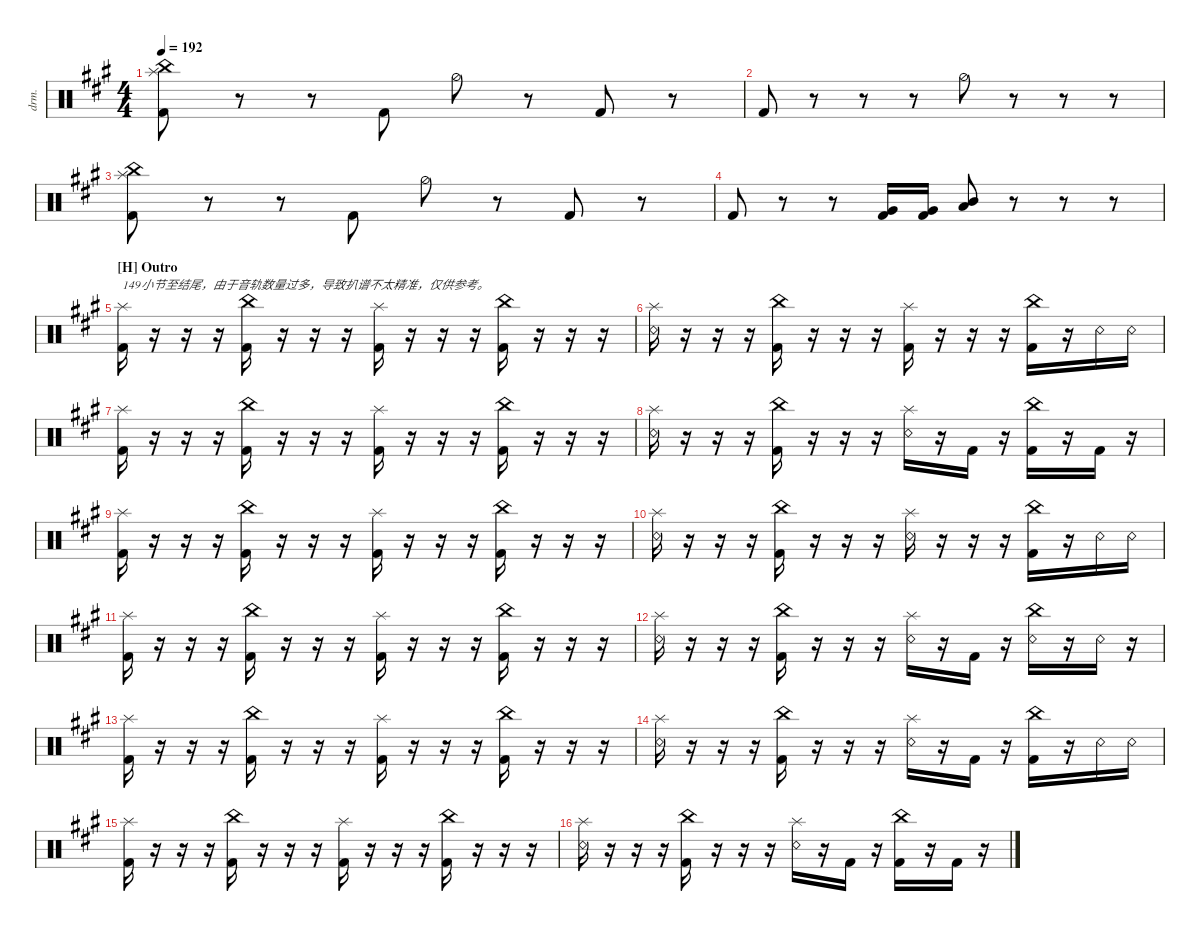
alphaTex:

\defaultSystemsLayout 4
\hideDynamics
\bracketExtendMode nobrackets
\otherSystemsTrackNameOrientation horizontal
\track ("Drumkit" "drm.") {instrument percussion}
\staff {score}
\articulation defaults
\ts (4 4)
\tempo 192
\clef neutral
\ks a
("Kick (hit) 2"{acc forcenatural} "China (hit)"{acc forcenatural} "Splash (hit)"{acc forcenatural}).8{dy ff beam Down} r.8{beam Down} r.8{beam Down} "Kick (hit) 2"{acc forcenatural}.8{beam Up} "Hi-Hat (half)"{acc forcenatural}.8{beam Down} r.8{beam Down} "Kick (hit) 2"{acc forcenatural}.8{beam Up} r.8{beam Up} |
"Kick (hit) 2"{acc forcenatural}.8{beam Up} r.8{beam Up} r.8{beam Up} r.8{beam Up} "Hi-Hat (half)"{acc forcenatural}.8{beam Down} r.8{beam Down} r.8{beam Down} r.8{beam Down} |
("Kick (hit) 2"{acc forcenatural} "China (hit)"{acc forcenatural} "Splash (hit)"{acc forcenatural}).8{beam Down} r.8{beam Down} r.8{beam Down} "Kick (hit) 2"{acc forcenatural}.8{beam Up} "Hi-Hat (half)"{acc forcenatural}.8{beam Down} r.8{beam Down} "Kick (hit) 2"{acc forcenatural}.8{beam Up} r.8{beam Up} |
"Kick (hit) 2"{acc forcenatural}.8{beam Up} r.8{beam Up} r.8{beam Up} ("Kick (hit) 2"{acc forcenatural} "Very Low Tom (hit)"{acc forcenatural}).16{beam Up} ("Kick (hit) 2"{acc forcenatural} "Very Low Tom (hit)"{acc forcenatural}).16{beam Up} ("Mid Tom (hit)"{acc forcenatural} "Low Tom (hit)"{acc forcenatural}).8{beam Up} r.8{beam Up} r.8{beam Up} r.8{beam Up} |
\section ("H" "Outro")
("Kick (hit) 2"{acc forcenatural} "Splash (hit)"{acc forcenatural}).16{txt "149小节至结尾，由于音轨数量过多，导致扒谱不太精准，仅供参考。" beam Down} r.16{beam Down} r.16{beam Down} r.16{beam Down} ("Kick (hit) 2"{acc forcenatural} "China (hit)"{acc forcenatural}).16{beam Down} r.16{beam Down} r.16{beam Down} r.16{beam Down} ("Kick (hit) 2"{acc forcenatural} "Splash (hit)"{acc forcenatural}).16{beam Down} r.16{beam Down} r.16{beam Down} r.16{beam Down} ("Kick (hit) 2"{acc forcenatural} "China (hit)"{acc forcenatural}).16{beam Down} r.16{beam Down} r.16{beam Down} r.16{beam Down} |
("Snare (rim shot)"{acc forcenatural} "Splash (hit)"{acc forcenatural}).16{beam Down} r.16{beam Down} r.16{beam Down} r.16{beam Down} ("Kick (hit) 2"{acc forcenatural} "China (hit)"{acc forcenatural}).16{beam Down} r.16{beam Down} r.16{beam Down} r.16{beam Down} ("Kick (hit) 2"{acc forcenatural} "Splash (hit)"{acc forcenatural}).16{beam Down} r.16{beam Down} r.16{beam Down} r.16{beam Down} ("Kick (hit) 2"{acc forcenatural} "China (hit)"{acc forcenatural}).16{beam Down} r.16{beam Down} "Snare (rim shot)"{acc forcenatural}.16{beam Down} "Snare (rim shot)"{acc forcenatural}.16{beam Down} |
("Kick (hit) 2"{acc forcenatural} "Splash (hit)"{acc forcenatural}).16{beam Down} r.16{beam Down} r.16{beam Down} r.16{beam Down} ("Kick (hit) 2"{acc forcenatural} "China (hit)"{acc forcenatural}).16{beam Down} r.16{beam Down} r.16{beam Down} r.16{beam Down} ("Kick (hit) 2"{acc forcenatural} "Splash (hit)"{acc forcenatural}).16{beam Down} r.16{beam Down} r.16{beam Down} r.16{beam Down} ("Kick (hit) 2"{acc forcenatural} "China (hit)"{acc forcenatural}).16{beam Down} r.16{beam Down} r.16{beam Down} r.16{beam Down} |
("Snare (rim shot)"{acc forcenatural} "Splash (hit)"{acc forcenatural}).16{beam Down} r.16{beam Down} r.16{beam Down} r.16{beam Down} ("Kick (hit) 2"{acc forcenatural} "China (hit)"{acc forcenatural}).16{beam Down} r.16{beam Down} r.16{beam Down} r.16{beam Down} ("Splash (hit)"{acc forcenatural} "Snare (rim shot)"{acc forcenatural}).16{beam Down} r.16{beam Down} "Kick (hit) 2"{acc forcenatural}.16{beam Down} r.16{beam Down} ("Kick (hit) 2"{acc forcenatural} "China (hit)"{acc forcenatural}).16{beam Down} r.16{beam Down} "Kick (hit) 2"{acc forcenatural}.16{beam Down} r.16{beam Down} |
("Kick (hit) 2"{acc forcenatural} "Splash (hit)"{acc forcenatural}).16{beam Down} r.16{beam Down} r.16{beam Down} r.16{beam Down} ("Kick (hit) 2"{acc forcenatural} "China (hit)"{acc forcenatural}).16{beam Down} r.16{beam Down} r.16{beam Down} r.16{beam Down} ("Kick (hit) 2"{acc forcenatural} "Splash (hit)"{acc forcenatural}).16{beam Down} r.16{beam Down} r.16{beam Down} r.16{beam Down} ("Kick (hit) 2"{acc forcenatural} "China (hit)"{acc forcenatural}).16{beam Down} r.16{beam Down} r.16{beam Down} r.16{beam Down} |
("Snare (rim shot)"{acc forcenatural} "Splash (hit)"{acc forcenatural}).16{beam Down} r.16{beam Down} r.16{beam Down} r.16{beam Down} ("Kick (hit) 2"{acc forcenatural} "China (hit)"{acc forcenatural}).16{beam Down} r.16{beam Down} r.16{beam Down} r.16{beam Down} ("Splash (hit)"{acc forcenatural} "Snare (rim shot)"{acc forcenatural}).16{beam Down} r.16{beam Down} r.16{beam Down} r.16{beam Down} ("Kick (hit) 2"{acc forcenatural} "China (hit)"{acc forcenatural}).16{beam Down} r.16{beam Down} "Snare (rim shot)"{acc forcenatural}.16{beam Down} "Snare (rim shot)"{acc forcenatural}.16{beam Down} |
("Kick (hit) 2"{acc forcenatural} "Splash (hit)"{acc forcenatural}).16{beam Down} r.16{beam Down} r.16{beam Down} r.16{beam Down} ("Kick (hit) 2"{acc forcenatural} "China (hit)"{acc forcenatural}).16{beam Down} r.16{beam Down} r.16{beam Down} r.16{beam Down} ("Kick (hit) 2"{acc forcenatural} "Splash (hit)"{acc forcenatural}).16{beam Down} r.16{beam Down} r.16{beam Down} r.16{beam Down} ("Kick (hit) 2"{acc forcenatural} "China (hit)"{acc forcenatural}).16{beam Down} r.16{beam Down} r.16{beam Down} r.16{beam Down} |
("Snare (rim shot)"{acc forcenatural} "Splash (hit)"{acc forcenatural}).16{beam Down} r.16{beam Down} r.16{beam Down} r.16{beam Down} ("Kick (hit) 2"{acc forcenatural} "China (hit)"{acc forcenatural}).16{beam Down} r.16{beam Down} r.16{beam Down} r.16{beam Down} ("Splash (hit)"{acc forcenatural} "Snare (rim shot)"{acc forcenatural}).16{beam Down} r.16{beam Down} "Kick (hit) 2"{acc forcenatural}.16{beam Down} r.16{beam Down} ("China (hit)"{acc forcenatural} "Snare (rim shot)"{acc forcenatural}).16{beam Down} r.16{beam Down} "Snare (rim shot)"{acc forcenatural}.16{beam Down} r.16{beam Down} |
("Kick (hit) 2"{acc forcenatural} "Splash (hit)"{acc forcenatural}).16{beam Down} r.16{beam Down} r.16{beam Down} r.16{beam Down} ("Kick (hit) 2"{acc forcenatural} "China (hit)"{acc forcenatural}).16{beam Down} r.16{beam Down} r.16{beam Down} r.16{beam Down} ("Kick (hit) 2"{acc forcenatural} "Splash (hit)"{acc forcenatural}).16{beam Down} r.16{beam Down} r.16{beam Down} r.16{beam Down} ("Kick (hit) 2"{acc forcenatural} "China (hit)"{acc forcenatural}).16{beam Down} r.16{beam Down} r.16{beam Down} r.16{beam Down} |
("Snare (rim shot)"{acc forcenatural} "Splash (hit)"{acc forcenatural}).16{beam Down} r.16{beam Down} r.16{beam Down} r.16{beam Down} ("Kick (hit) 2"{acc forcenatural} "China (hit)"{acc forcenatural}).16{beam Down} r.16{beam Down} r.16{beam Down} r.16{beam Down} ("Splash (hit)"{acc forcenatural} "Snare (rim shot)"{acc forcenatural}).16{beam Down} r.16{beam Down} "Kick (hit) 2"{acc forcenatural}.16{beam Down} r.16{beam Down} ("Kick (hit) 2"{acc forcenatural} "China (hit)"{acc forcenatural}).16{beam Down} r.16{beam Down} "Snare (rim shot)"{acc forcenatural}.16{beam Down} "Snare (rim shot)"{acc forcenatural}.16{beam Down} |
("Kick (hit) 2"{acc forcenatural} "Splash (hit)"{acc forcenatural}).16{beam Down} r.16{beam Down} r.16{beam Down} r.16{beam Down} ("Kick (hit) 2"{acc forcenatural} "China (hit)"{acc forcenatural}).16{beam Down} r.16{beam Down} r.16{beam Down} r.16{beam Down} ("Kick (hit) 2"{acc forcenatural} "Splash (hit)"{acc forcenatural}).16{beam Down} r.16{beam Down} r.16{beam Down} r.16{beam Down} ("Kick (hit) 2"{acc forcenatural} "China (hit)"{acc forcenatural}).16{beam Down} r.16{beam Down} r.16{beam Down} r.16{beam Down} |
("Snare (rim shot)"{acc forcenatural} "Splash (hit)"{acc forcenatural}).16{beam Down} r.16{beam Down} r.16{beam Down} r.16{beam Down} ("Kick (hit) 2"{acc forcenatural} "China (hit)"{acc forcenatural}).16{beam Down} r.16{beam Down} r.16{beam Down} r.16{beam Down} ("Splash (hit)"{acc forcenatural} "Snare (rim shot)"{acc forcenatural}).16{beam Down} r.16{beam Down} "Kick (hit) 2"{acc forcenatural}.16{beam Down} r.16{beam Down} ("China (hit)"{acc forcenatural} "Kick (hit) 2"{acc forcenatural}).16{beam Down} r.16{beam Down} "Kick (hit) 2"{acc forcenatural}.16{beam Down} r.16{beam Down}
